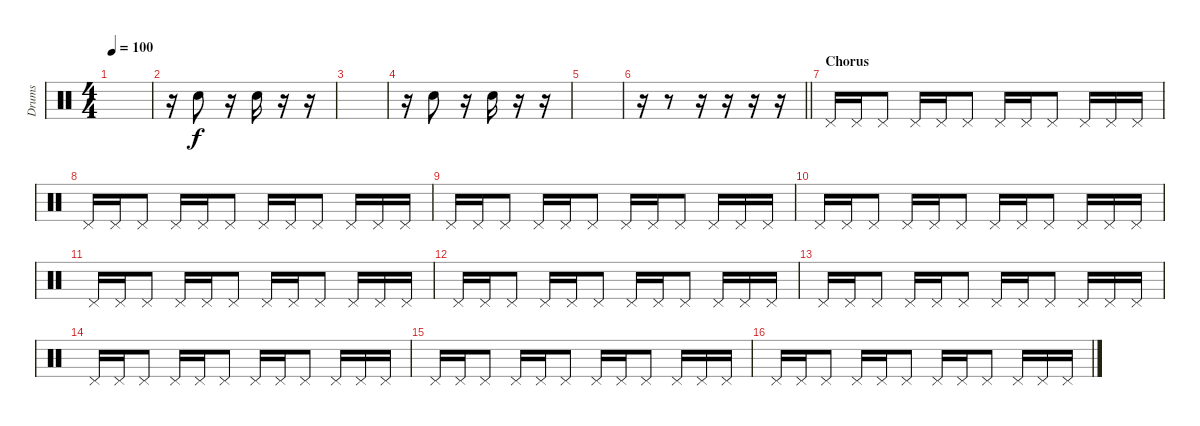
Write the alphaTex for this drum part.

\track ("Drums" "Drums") {instrument percussion}
\staff {score}
\articulation defaults
\ts (4 4)
\tempo 100
\clef neutral
\ks c
|
r.16 "Electric Snare (hit)".8 r.16 "Electric Snare (hit)".16 r.16 r.16 |
|
r.16 "Electric Snare (hit)".8 r.16 "Electric Snare (hit)".16 r.16 r.16 |
|
\barLineRight lightlight
r.16 r.8 r.16 r.16 r.16 r.16 |
\section ("" "Chorus")
"Pedal Hi-Hat (hit)".16 "Pedal Hi-Hat (hit)".16 "Pedal Hi-Hat (hit)".8 "Pedal Hi-Hat (hit)".16 "Pedal Hi-Hat (hit)".16 "Pedal Hi-Hat (hit)".8 "Pedal Hi-Hat (hit)".16 "Pedal Hi-Hat (hit)".16 "Pedal Hi-Hat (hit)".8 "Pedal Hi-Hat (hit)".16 "Pedal Hi-Hat (hit)".16 "Pedal Hi-Hat (hit)".16 |
"Pedal Hi-Hat (hit)".16 "Pedal Hi-Hat (hit)".16 "Pedal Hi-Hat (hit)".8 "Pedal Hi-Hat (hit)".16 "Pedal Hi-Hat (hit)".16 "Pedal Hi-Hat (hit)".8 "Pedal Hi-Hat (hit)".16 "Pedal Hi-Hat (hit)".16 "Pedal Hi-Hat (hit)".8 "Pedal Hi-Hat (hit)".16 "Pedal Hi-Hat (hit)".16 "Pedal Hi-Hat (hit)".16 |
"Pedal Hi-Hat (hit)".16 "Pedal Hi-Hat (hit)".16 "Pedal Hi-Hat (hit)".8 "Pedal Hi-Hat (hit)".16 "Pedal Hi-Hat (hit)".16 "Pedal Hi-Hat (hit)".8 "Pedal Hi-Hat (hit)".16 "Pedal Hi-Hat (hit)".16 "Pedal Hi-Hat (hit)".8 "Pedal Hi-Hat (hit)".16 "Pedal Hi-Hat (hit)".16 "Pedal Hi-Hat (hit)".16 |
"Pedal Hi-Hat (hit)".16 "Pedal Hi-Hat (hit)".16 "Pedal Hi-Hat (hit)".8 "Pedal Hi-Hat (hit)".16 "Pedal Hi-Hat (hit)".16 "Pedal Hi-Hat (hit)".8 "Pedal Hi-Hat (hit)".16 "Pedal Hi-Hat (hit)".16 "Pedal Hi-Hat (hit)".8 "Pedal Hi-Hat (hit)".16 "Pedal Hi-Hat (hit)".16 "Pedal Hi-Hat (hit)".16 |
"Pedal Hi-Hat (hit)".16 "Pedal Hi-Hat (hit)".16 "Pedal Hi-Hat (hit)".8 "Pedal Hi-Hat (hit)".16 "Pedal Hi-Hat (hit)".16 "Pedal Hi-Hat (hit)".8 "Pedal Hi-Hat (hit)".16 "Pedal Hi-Hat (hit)".16 "Pedal Hi-Hat (hit)".8 "Pedal Hi-Hat (hit)".16 "Pedal Hi-Hat (hit)".16 "Pedal Hi-Hat (hit)".16 |
"Pedal Hi-Hat (hit)".16 "Pedal Hi-Hat (hit)".16 "Pedal Hi-Hat (hit)".8 "Pedal Hi-Hat (hit)".16 "Pedal Hi-Hat (hit)".16 "Pedal Hi-Hat (hit)".8 "Pedal Hi-Hat (hit)".16 "Pedal Hi-Hat (hit)".16 "Pedal Hi-Hat (hit)".8 "Pedal Hi-Hat (hit)".16 "Pedal Hi-Hat (hit)".16 "Pedal Hi-Hat (hit)".16 |
"Pedal Hi-Hat (hit)".16 "Pedal Hi-Hat (hit)".16 "Pedal Hi-Hat (hit)".8 "Pedal Hi-Hat (hit)".16 "Pedal Hi-Hat (hit)".16 "Pedal Hi-Hat (hit)".8 "Pedal Hi-Hat (hit)".16 "Pedal Hi-Hat (hit)".16 "Pedal Hi-Hat (hit)".8 "Pedal Hi-Hat (hit)".16 "Pedal Hi-Hat (hit)".16 "Pedal Hi-Hat (hit)".16 |
"Pedal Hi-Hat (hit)".16 "Pedal Hi-Hat (hit)".16 "Pedal Hi-Hat (hit)".8 "Pedal Hi-Hat (hit)".16 "Pedal Hi-Hat (hit)".16 "Pedal Hi-Hat (hit)".8 "Pedal Hi-Hat (hit)".16 "Pedal Hi-Hat (hit)".16 "Pedal Hi-Hat (hit)".8 "Pedal Hi-Hat (hit)".16 "Pedal Hi-Hat (hit)".16 "Pedal Hi-Hat (hit)".16 |
"Pedal Hi-Hat (hit)".16 "Pedal Hi-Hat (hit)".16 "Pedal Hi-Hat (hit)".8 "Pedal Hi-Hat (hit)".16 "Pedal Hi-Hat (hit)".16 "Pedal Hi-Hat (hit)".8 "Pedal Hi-Hat (hit)".16 "Pedal Hi-Hat (hit)".16 "Pedal Hi-Hat (hit)".8 "Pedal Hi-Hat (hit)".16 "Pedal Hi-Hat (hit)".16 "Pedal Hi-Hat (hit)".16 |
"Pedal Hi-Hat (hit)".16 "Pedal Hi-Hat (hit)".16 "Pedal Hi-Hat (hit)".8 "Pedal Hi-Hat (hit)".16 "Pedal Hi-Hat (hit)".16 "Pedal Hi-Hat (hit)".8 "Pedal Hi-Hat (hit)".16 "Pedal Hi-Hat (hit)".16 "Pedal Hi-Hat (hit)".8 "Pedal Hi-Hat (hit)".16 "Pedal Hi-Hat (hit)".16 "Pedal Hi-Hat (hit)".16
